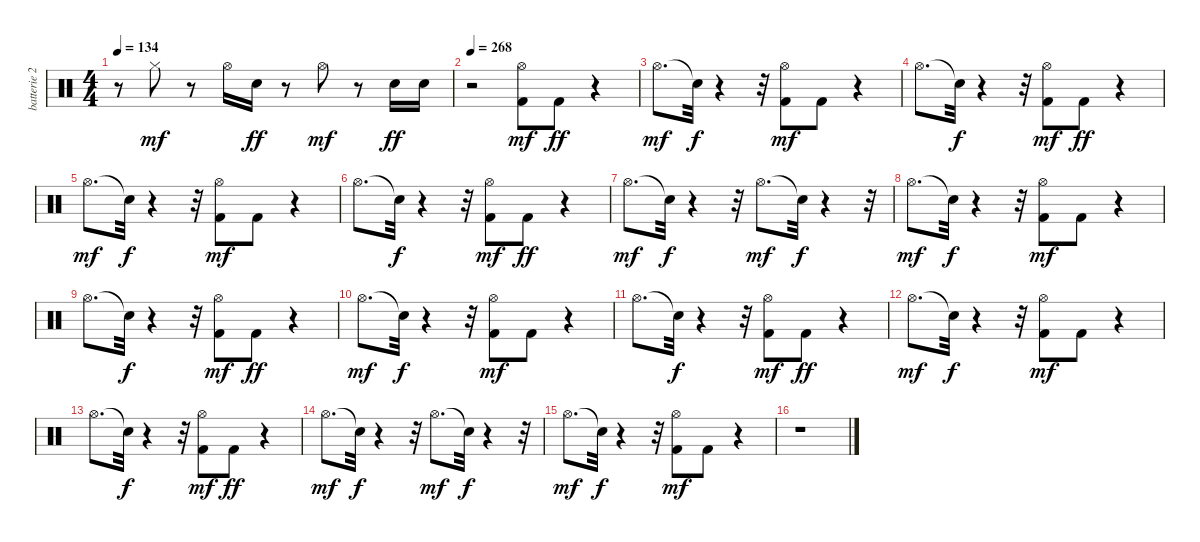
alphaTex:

\track ("batterie 2" "batterie 2") {instrument percussion}
\staff {score}
\articulation defaults
\ts (4 4)
\tempo 134
\clef neutral
\ks c
r.8{dy mf} "Hi-Hat (closed)".8 r.8 "Hi-Hat (open)".16 "Electric Snare (hit)".16{dy ff} r.8 "Hi-Hat (open)".8{dy mf} r.8 "Electric Snare (hit)".16{dy ff} "Electric Snare (hit)".16 |
\tempo 268
r.2 ("Kick (hit) 2" "Hi-Hat (open)").8{dy mf} "Kick (hit) 2".8{dy ff} r.4 |
"Hi-Hat (open)".8{d dy mf} "Snare (hit)"{t}.32{dy f} r.4 r.32 ("Kick (hit) 2" "Hi-Hat (open)").8{dy mf} "Kick (hit) 2".8 r.4 |
"Hi-Hat (open)".8{d} "Snare (hit)"{t}.32{dy f} r.4 r.32 ("Kick (hit) 2" "Hi-Hat (open)").8{dy mf} "Kick (hit) 2".8{dy ff} r.4 |
"Hi-Hat (open)".8{d dy mf} "Snare (hit)"{t}.32{dy f} r.4 r.32 ("Kick (hit) 2" "Hi-Hat (open)").8{dy mf} "Kick (hit) 2".8 r.4 |
"Hi-Hat (open)".8{d} "Snare (hit)"{t}.32{dy f} r.4 r.32 ("Kick (hit) 2" "Hi-Hat (open)").8{dy mf} "Kick (hit) 2".8{dy ff} r.4 |
"Hi-Hat (open)".8{d dy mf} "Snare (hit)"{t}.32{dy f} r.4 r.32 "Hi-Hat (open)".8{d dy mf} "Snare (hit)"{t}.32{dy f} r.4 r.32 |
"Hi-Hat (open)".8{d dy mf} "Snare (hit)"{t}.32{dy f} r.4 r.32 ("Kick (hit) 2" "Hi-Hat (open)").8{dy mf} "Kick (hit) 2".8 r.4 |
"Hi-Hat (open)".8{d} "Snare (hit)"{t}.32{dy f} r.4 r.32 ("Kick (hit) 2" "Hi-Hat (open)").8{dy mf} "Kick (hit) 2".8{dy ff} r.4 |
"Hi-Hat (open)".8{d dy mf} "Snare (hit)"{t}.32{dy f} r.4 r.32 ("Kick (hit) 2" "Hi-Hat (open)").8{dy mf} "Kick (hit) 2".8 r.4 |
"Hi-Hat (open)".8{d} "Snare (hit)"{t}.32{dy f} r.4 r.32 ("Kick (hit) 2" "Hi-Hat (open)").8{dy mf} "Kick (hit) 2".8{dy ff} r.4 |
"Hi-Hat (open)".8{d dy mf} "Snare (hit)"{t}.32{dy f} r.4 r.32 ("Kick (hit) 2" "Hi-Hat (open)").8{dy mf} "Kick (hit) 2".8 r.4 |
"Hi-Hat (open)".8{d} "Snare (hit)"{t}.32{dy f} r.4 r.32 ("Kick (hit) 2" "Hi-Hat (open)").8{dy mf} "Kick (hit) 2".8{dy ff} r.4 |
"Hi-Hat (open)".8{d dy mf} "Snare (hit)"{t}.32{dy f} r.4 r.32 "Hi-Hat (open)".8{d dy mf} "Snare (hit)"{t}.32{dy f} r.4 r.32 |
"Hi-Hat (open)".8{d dy mf} "Snare (hit)"{t}.32{dy f} r.4 r.32 ("Kick (hit) 2" "Hi-Hat (open)").8{dy mf} "Kick (hit) 2".8 r.4 |
r.1
